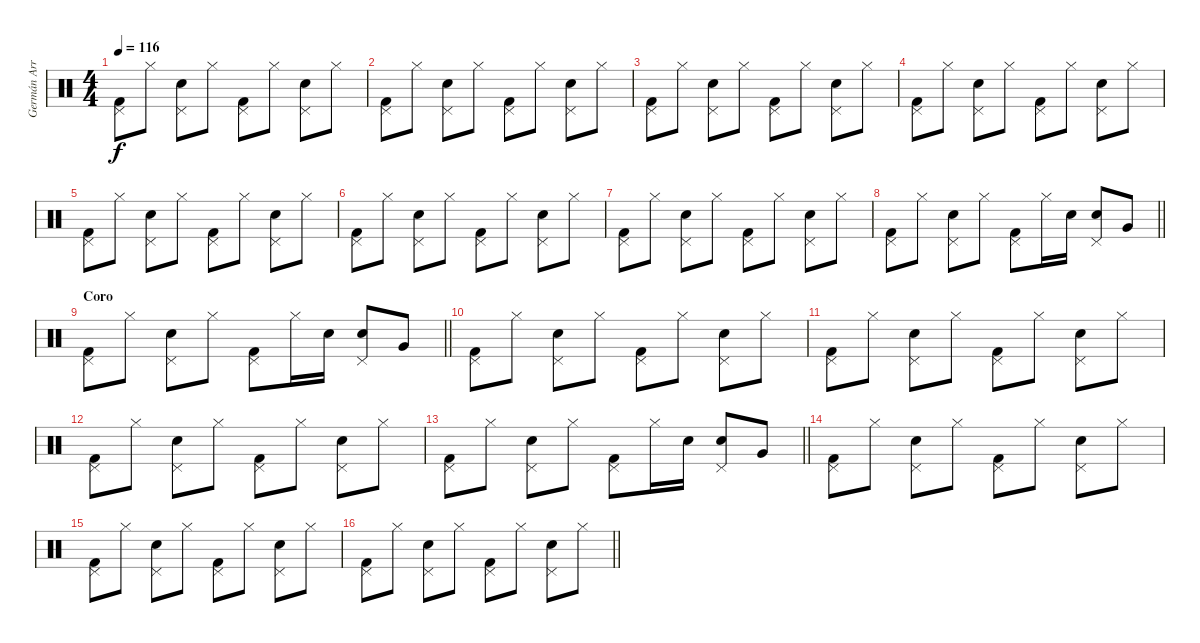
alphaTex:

\track ("Germán Arroyo (Batería)" "Germán Arr") {instrument percussion}
\staff {score}
\articulation defaults
\ts (4 4)
\tempo 116
\clef neutral
\ks c
("Pedal Hi-Hat (hit)" "Kick (hit) 2").8{dy f} "Hi-Hat (closed)".8 ("Pedal Hi-Hat (hit)" "Snare (hit) 2").8 "Hi-Hat (closed)".8 ("Pedal Hi-Hat (hit)" "Kick (hit) 2").8 "Hi-Hat (closed)".8 ("Pedal Hi-Hat (hit)" "Snare (hit) 2").8 "Hi-Hat (closed)".8 |
("Pedal Hi-Hat (hit)" "Kick (hit) 2").8 "Hi-Hat (closed)".8 ("Pedal Hi-Hat (hit)" "Snare (hit) 2").8 "Hi-Hat (closed)".8 ("Pedal Hi-Hat (hit)" "Kick (hit) 2").8 "Hi-Hat (closed)".8 ("Pedal Hi-Hat (hit)" "Snare (hit) 2").8 "Hi-Hat (closed)".8 |
("Pedal Hi-Hat (hit)" "Kick (hit) 2").8 "Hi-Hat (closed)".8 ("Pedal Hi-Hat (hit)" "Snare (hit) 2").8 "Hi-Hat (closed)".8 ("Pedal Hi-Hat (hit)" "Kick (hit) 2").8 "Hi-Hat (closed)".8 ("Pedal Hi-Hat (hit)" "Snare (hit) 2").8 "Hi-Hat (closed)".8 |
("Pedal Hi-Hat (hit)" "Kick (hit) 2").8 "Hi-Hat (closed)".8 ("Pedal Hi-Hat (hit)" "Snare (hit) 2").8 "Hi-Hat (closed)".8 ("Pedal Hi-Hat (hit)" "Kick (hit) 2").8 "Hi-Hat (closed)".8 ("Pedal Hi-Hat (hit)" "Snare (hit) 2").8 "Hi-Hat (closed)".8 |
("Pedal Hi-Hat (hit)" "Kick (hit) 2").8 "Hi-Hat (closed)".8 ("Pedal Hi-Hat (hit)" "Snare (hit) 2").8 "Hi-Hat (closed)".8 ("Pedal Hi-Hat (hit)" "Kick (hit) 2").8 "Hi-Hat (closed)".8 ("Pedal Hi-Hat (hit)" "Snare (hit) 2").8 "Hi-Hat (closed)".8 |
("Pedal Hi-Hat (hit)" "Kick (hit) 2").8 "Hi-Hat (closed)".8 ("Pedal Hi-Hat (hit)" "Snare (hit) 2").8 "Hi-Hat (closed)".8 ("Pedal Hi-Hat (hit)" "Kick (hit) 2").8 "Hi-Hat (closed)".8 ("Pedal Hi-Hat (hit)" "Snare (hit) 2").8 "Hi-Hat (closed)".8 |
("Pedal Hi-Hat (hit)" "Kick (hit) 2").8 "Hi-Hat (closed)".8 ("Pedal Hi-Hat (hit)" "Snare (hit) 2").8 "Hi-Hat (closed)".8 ("Pedal Hi-Hat (hit)" "Kick (hit) 2").8 "Hi-Hat (closed)".8 ("Pedal Hi-Hat (hit)" "Snare (hit) 2").8 "Hi-Hat (closed)".8 |
\barLineRight lightlight
("Pedal Hi-Hat (hit)" "Kick (hit) 2").8 "Hi-Hat (closed)".8 ("Pedal Hi-Hat (hit)" "Snare (hit) 2").8 "Hi-Hat (closed)".8 ("Pedal Hi-Hat (hit)" "Kick (hit) 2").8 "Hi-Hat (closed)".16 "Snare (hit) 2".16 ("Pedal Hi-Hat (hit)" "Snare (hit) 2").8 "Very Low Tom (hit)".8 |
\section ("" "Coro")
\barLineRight lightlight
("Pedal Hi-Hat (hit)" "Kick (hit) 2").8 "Hi-Hat (closed)".8 ("Pedal Hi-Hat (hit)" "Snare (hit) 2").8 "Hi-Hat (closed)".8 ("Pedal Hi-Hat (hit)" "Kick (hit) 2").8 "Hi-Hat (closed)".16 "Snare (hit) 2".16 ("Pedal Hi-Hat (hit)" "Snare (hit) 2").8 "Very Low Tom (hit)".8 |
("Pedal Hi-Hat (hit)" "Kick (hit) 2").8 "Hi-Hat (closed)".8 ("Pedal Hi-Hat (hit)" "Snare (hit) 2").8 "Hi-Hat (closed)".8 ("Pedal Hi-Hat (hit)" "Kick (hit) 2").8 "Hi-Hat (closed)".8 ("Pedal Hi-Hat (hit)" "Snare (hit) 2").8 "Hi-Hat (closed)".8 |
("Pedal Hi-Hat (hit)" "Kick (hit) 2").8 "Hi-Hat (closed)".8 ("Pedal Hi-Hat (hit)" "Snare (hit) 2").8 "Hi-Hat (closed)".8 ("Pedal Hi-Hat (hit)" "Kick (hit) 2").8 "Hi-Hat (closed)".8 ("Pedal Hi-Hat (hit)" "Snare (hit) 2").8 "Hi-Hat (closed)".8 |
("Pedal Hi-Hat (hit)" "Kick (hit) 2").8 "Hi-Hat (closed)".8 ("Pedal Hi-Hat (hit)" "Snare (hit) 2").8 "Hi-Hat (closed)".8 ("Pedal Hi-Hat (hit)" "Kick (hit) 2").8 "Hi-Hat (closed)".8 ("Pedal Hi-Hat (hit)" "Snare (hit) 2").8 "Hi-Hat (closed)".8 |
\barLineRight lightlight
("Pedal Hi-Hat (hit)" "Kick (hit) 2").8 "Hi-Hat (closed)".8 ("Pedal Hi-Hat (hit)" "Snare (hit) 2").8 "Hi-Hat (closed)".8 ("Pedal Hi-Hat (hit)" "Kick (hit) 2").8 "Hi-Hat (closed)".16 "Snare (hit) 2".16 ("Pedal Hi-Hat (hit)" "Snare (hit) 2").8 "Very Low Tom (hit)".8 |
("Pedal Hi-Hat (hit)" "Kick (hit) 2").8 "Hi-Hat (closed)".8 ("Pedal Hi-Hat (hit)" "Snare (hit) 2").8 "Hi-Hat (closed)".8 ("Pedal Hi-Hat (hit)" "Kick (hit) 2").8 "Hi-Hat (closed)".8 ("Pedal Hi-Hat (hit)" "Snare (hit) 2").8 "Hi-Hat (closed)".8 |
("Pedal Hi-Hat (hit)" "Kick (hit) 2").8 "Hi-Hat (closed)".8 ("Pedal Hi-Hat (hit)" "Snare (hit) 2").8 "Hi-Hat (closed)".8 ("Pedal Hi-Hat (hit)" "Kick (hit) 2").8 "Hi-Hat (closed)".8 ("Pedal Hi-Hat (hit)" "Snare (hit) 2").8 "Hi-Hat (closed)".8 |
\barLineRight lightlight
("Pedal Hi-Hat (hit)" "Kick (hit) 2").8 "Hi-Hat (closed)".8 ("Pedal Hi-Hat (hit)" "Snare (hit) 2").8 "Hi-Hat (closed)".8 ("Pedal Hi-Hat (hit)" "Kick (hit) 2").8 "Hi-Hat (closed)".8 ("Pedal Hi-Hat (hit)" "Snare (hit) 2").8 "Hi-Hat (closed)".8
